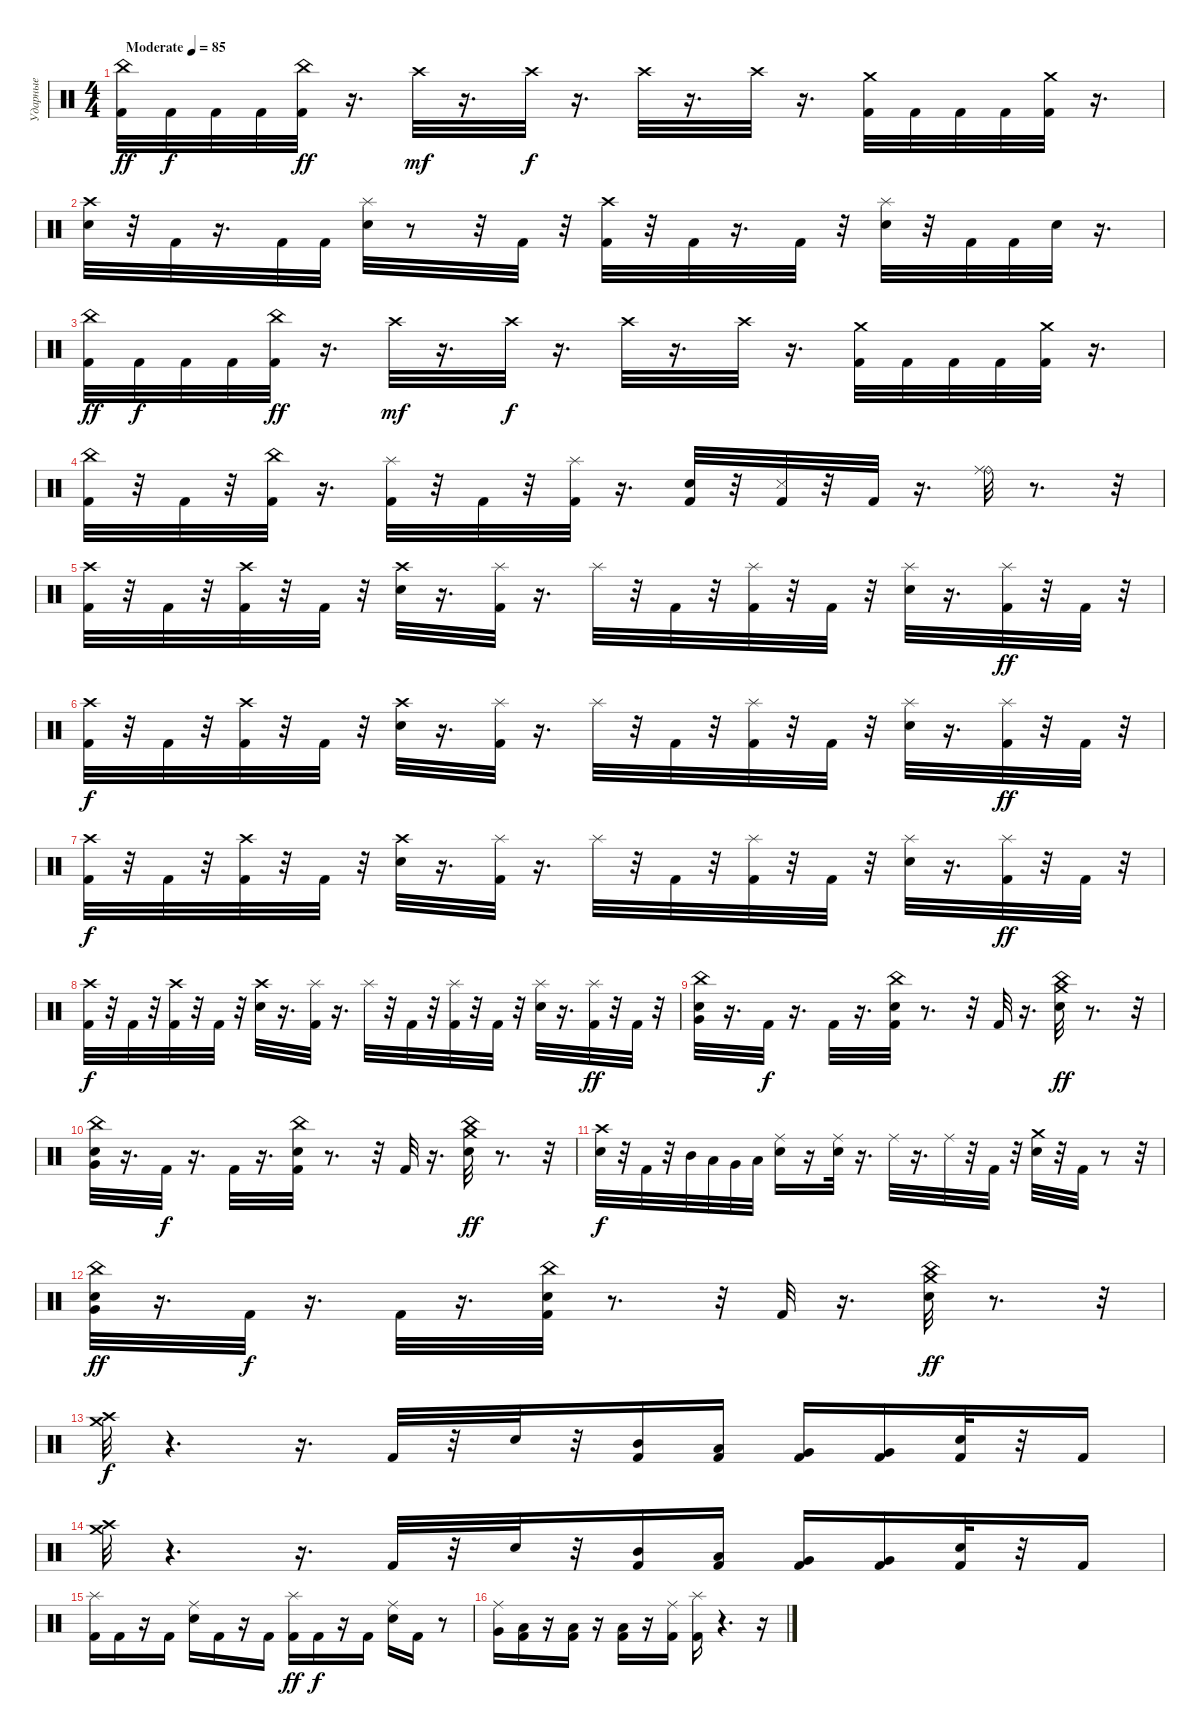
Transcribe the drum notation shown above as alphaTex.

\track ("Ударные" "Ударные") {instrument percussion}
\staff {score}
\articulation defaults
\ts (4 4)
\tempo (85 "Moderate")
\clef neutral
\ks c
("China (hit)" "Kick (hit) 2").32{dy ff} "Kick (hit) 2".32{dy f} "Kick (hit) 2".32 "Kick (hit) 2".32 ("China (hit)" "Kick (hit) 2").32{dy ff} r.16{d} "Crash high (hit)".32{dy mf} r.16{d} "Crash high (hit)".32{dy f} r.16{d} "Crash high (hit)".32 r.16{d} "Crash high (hit)".32 r.16{d} ("Crash medium (hit)" "Kick (hit) 2").32 "Kick (hit) 2".32 "Kick (hit) 2".32 "Kick (hit) 2".32 ("Crash medium (hit)" "Kick (hit) 2").32 r.16{d} |
("Snare (hit) 2" "Crash high (hit)").32 r.32 "Kick (hit) 2".32 r.16{d} "Kick (hit) 2".32 "Kick (hit) 2".32 ("Snare (hit) 2" "Splash (hit)").32 r.8 r.32 "Kick (hit) 2".32 r.32 ("Kick (hit) 2" "Crash high (hit)").32 r.32 "Kick (hit) 2".32 r.16{d} "Kick (hit) 2".32 r.32 ("Snare (hit) 2" "Splash (hit)").32 r.32 "Kick (hit) 2".32 "Kick (hit) 2".32 "Snare (hit) 2".32 r.16{d} |
("China (hit)" "Kick (hit) 2").32{dy ff} "Kick (hit) 2".32{dy f} "Kick (hit) 2".32 "Kick (hit) 2".32 ("China (hit)" "Kick (hit) 2").32{dy ff} r.16{d} "Crash high (hit)".32{dy mf} r.16{d} "Crash high (hit)".32{dy f} r.16{d} "Crash high (hit)".32 r.16{d} "Crash high (hit)".32 r.16{d} ("Crash medium (hit)" "Kick (hit) 2").32 "Kick (hit) 2".32 "Kick (hit) 2".32 "Kick (hit) 2".32 ("Crash medium (hit)" "Kick (hit) 2").32 r.16{d} |
("China (hit)" "Kick (hit) 2").32 r.32 "Kick (hit) 2".32 r.32 ("China (hit)" "Kick (hit) 2").32 r.16{d} ("Splash (hit)" "Kick (hit) 2").32 r.32 "Kick (hit) 2".32 r.32 ("Splash (hit)" "Kick (hit) 2").32 r.16{d} ("Snare (hit) 2" "Kick (hit) 2").32 r.32 ("Snare (side stick) 3" "Kick (hit) 2").32 r.32 "Kick (hit) 2".32 r.16{d} ("Ride (bell)" "Ride (middle)").32 r.8{d} r.32 |
("Crash high (hit)" "Kick (hit) 2").32 r.32 "Kick (hit) 2".32 r.32 ("Crash high (hit)" "Kick (hit) 2").32 r.32 "Kick (hit) 2".32 r.32 ("Crash high (hit)" "Snare (hit) 2").32 r.16{d} ("Splash (hit)" "Kick (hit) 2").32 r.16{d} "Splash (hit)".32 r.32 "Kick (hit) 2".32 r.32 ("Splash (hit)" "Kick (hit) 2").32 r.32 "Kick (hit) 2".32 r.32 ("Splash (hit)" "Snare (hit) 2").32 r.16{d} ("Splash (hit)" "Kick (hit) 2").32{dy ff} r.32 "Kick (hit) 2".32 r.32 |
("Crash high (hit)" "Kick (hit) 2").32{dy f} r.32 "Kick (hit) 2".32 r.32 ("Crash high (hit)" "Kick (hit) 2").32 r.32 "Kick (hit) 2".32 r.32 ("Crash high (hit)" "Snare (hit) 2").32 r.16{d} ("Splash (hit)" "Kick (hit) 2").32 r.16{d} "Splash (hit)".32 r.32 "Kick (hit) 2".32 r.32 ("Splash (hit)" "Kick (hit) 2").32 r.32 "Kick (hit) 2".32 r.32 ("Splash (hit)" "Snare (hit) 2").32 r.16{d} ("Splash (hit)" "Kick (hit) 2").32{dy ff} r.32 "Kick (hit) 2".32 r.32 |
("Crash high (hit)" "Kick (hit) 2").32{dy f} r.32 "Kick (hit) 2".32 r.32 ("Crash high (hit)" "Kick (hit) 2").32 r.32 "Kick (hit) 2".32 r.32 ("Crash high (hit)" "Snare (hit) 2").32 r.16{d} ("Splash (hit)" "Kick (hit) 2").32 r.16{d} "Splash (hit)".32 r.32 "Kick (hit) 2".32 r.32 ("Splash (hit)" "Kick (hit) 2").32 r.32 "Kick (hit) 2".32 r.32 ("Splash (hit)" "Snare (hit) 2").32 r.16{d} ("Splash (hit)" "Kick (hit) 2").32{dy ff} r.32 "Kick (hit) 2".32 r.32 |
("Crash high (hit)" "Kick (hit) 2").32{dy f} r.32 "Kick (hit) 2".32 r.32 ("Crash high (hit)" "Kick (hit) 2").32 r.32 "Kick (hit) 2".32 r.32 ("Crash high (hit)" "Snare (hit) 2").32 r.16{d} ("Splash (hit)" "Kick (hit) 2").32 r.16{d} "Splash (hit)".32 r.32 "Kick (hit) 2".32 r.32 ("Splash (hit)" "Kick (hit) 2").32 r.32 "Kick (hit) 2".32 r.32 ("Splash (hit)" "Snare (hit) 2").32 r.16{d} ("Splash (hit)" "Kick (hit) 2").32{dy ff} r.32 "Kick (hit) 2".32 r.32 |
("Very Low Tom (hit)" "China (hit)" "Snare (hit) 2").32 r.16{d} "Kick (hit) 2".32{dy f} r.16{d} "Kick (hit) 2".32 r.16{d} ("China (hit)" "Snare (hit) 2" "Kick (hit) 2").32 r.8{d} r.32 "Kick (hit) 2".32 r.16{d} ("Crash medium (hit)" "China (hit)" "Snare (hit) 2").32{dy ff} r.8{d} r.32 |
("Very Low Tom (hit)" "China (hit)" "Snare (hit) 2").32 r.16{d} "Kick (hit) 2".32{dy f} r.16{d} "Kick (hit) 2".32 r.16{d} ("China (hit)" "Snare (hit) 2" "Kick (hit) 2").32 r.8{d} r.32 "Kick (hit) 2".32 r.16{d} ("Crash medium (hit)" "China (hit)" "Snare (hit) 2").32{dy ff} r.8{d} r.32 |
("Crash high (hit)" "Snare (hit) 2").32{dy f} r.32 "Kick (hit) 2".32 r.32 "Mid Tom (hit)".32 "Low Tom (hit)".32 "Very Low Tom (hit)".32 "Low Floor Tom (hit)".32 ("Ride (middle)" "Hand Clap (hit)").16 r.16 ("Ride (middle)" "Snare (hit) 2").32 r.16{d} "Ride (middle)".32 r.16{d} "Ride (middle)".32 r.32 "Kick (hit) 2".32 r.32 ("Crash medium (hit)" "Snare (hit) 2").32 r.32 "Kick (hit) 2".32 r.8 r.32 |
("Very Low Tom (hit)" "China (hit)" "Snare (hit) 2").32{dy ff} r.16{d} "Kick (hit) 2".32{dy f} r.16{d} "Kick (hit) 2".32 r.16{d} ("China (hit)" "Snare (hit) 2" "Kick (hit) 2").32 r.8{d} r.32 "Kick (hit) 2".32 r.16{d} ("Crash medium (hit)" "China (hit)" "Snare (hit) 2").32{dy ff} r.8{d} r.32 |
("Crash medium (hit)" "Crash high (hit)").32{dy f} r.4{d} r.16{d} "Kick (hit) 2".32 r.32 "Electric Snare (hit)".32 r.32 ("Mid Tom (hit)" "Kick (hit) 2").16 ("Low Tom (hit)" "Kick (hit) 2").16 ("Very Low Tom (hit)" "Kick (hit) 2").16 ("Very Low Tom (hit)" "Kick (hit) 2").16 ("Electric Snare (hit)" "Kick (hit) 2").32 r.32 "Kick (hit) 2".16 |
("Crash medium (hit)" "Crash high (hit)").32 r.4{d} r.16{d} "Kick (hit) 2".32 r.32 "Electric Snare (hit)".32 r.32 ("Mid Tom (hit)" "Kick (hit) 2").16 ("Low Tom (hit)" "Kick (hit) 2").16 ("Very Low Tom (hit)" "Kick (hit) 2").16 ("Very Low Tom (hit)" "Kick (hit) 2").16 ("Electric Snare (hit)" "Kick (hit) 2").32 r.32 "Kick (hit) 2".16 |
("Splash (hit)" "Kick (hit) 2").16 "Kick (hit) 2".16 r.16 "Kick (hit) 2".16 ("Snare (hit) 2" "Ride (middle)").16 "Kick (hit) 2".16 r.16 "Kick (hit) 2".16 ("Kick (hit) 2" "Splash (hit)").16{dy ff} "Kick (hit) 2".16{dy f} r.16 "Kick (hit) 2".16 ("Ride (middle)" "Snare (hit) 2").16 "Kick (hit) 2".16 r.8 |
("Very Low Tom (hit)" "Ride (middle)").16 ("Low Floor Tom (hit)" "Kick (hit) 2").16 r.16 ("Low Floor Tom (hit)" "Kick (hit) 2").16 r.16 ("Low Floor Tom (hit)" "Kick (hit) 2").16 r.16 ("Kick (hit) 2" "Ride (middle)").16 ("Kick (hit) 2" "Splash (hit)").16 r.4{d} r.16
